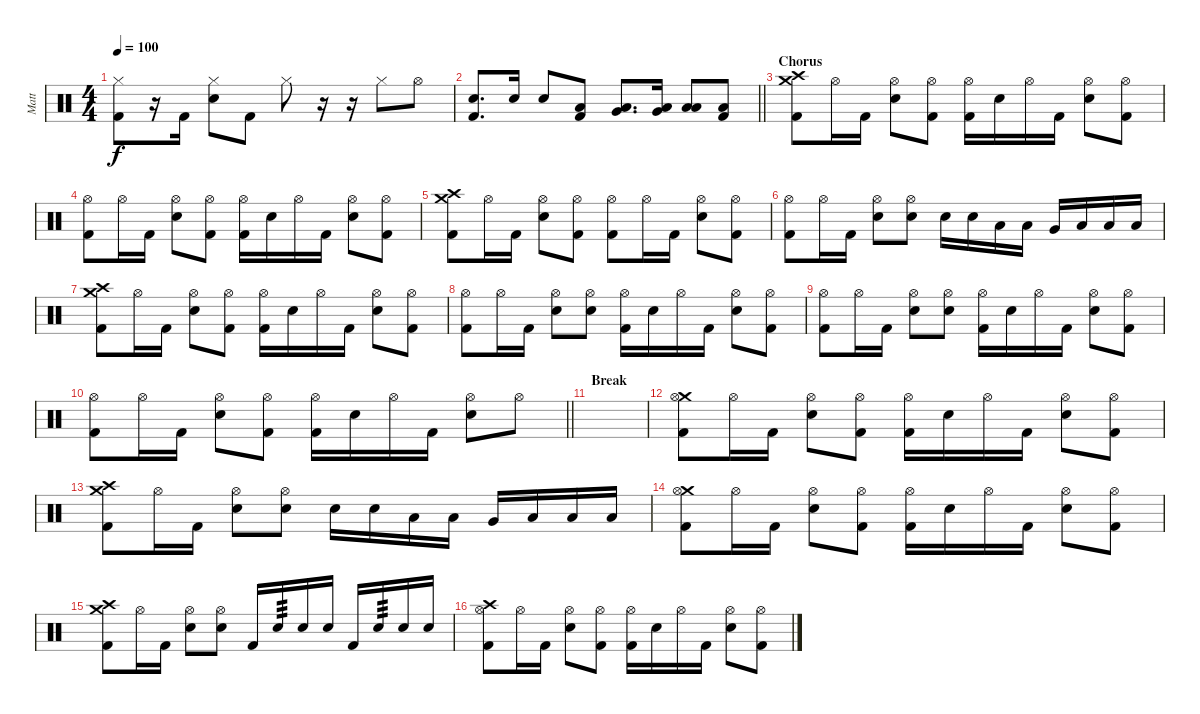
\track ("Matt" "Matt") {instrument percussion}
\staff {score}
\articulation defaults
\ts (4 4)
\tempo 100
\clef neutral
\ks c
("Hi-Hat (closed)" "Kick (hit) 2").8{dy f} r.16 "Kick (hit) 2".16 ("Hi-Hat (closed)" "Snare (hit) 2").8 "Kick (hit) 2".8 "Hi-Hat (closed)".8 r.16 r.16 "Hi-Hat (closed)".8 "Hi-Hat (open)".8 |
\barLineRight lightlight
("Snare (hit) 2" "Kick (hit) 2").8{d} "Snare (hit) 2".16 "Snare (hit) 2".8 ("Low Tom (hit)" "Kick (hit) 2").8 ("Low Tom (hit)" "Very Low Tom (hit)").8{d} ("Low Tom (hit)" "Very Low Tom (hit)").16 ("Low Tom (hit)" "Low Floor Tom (hit)").8 ("Low Floor Tom (hit)" "Kick (hit) 2").8 |
\section ("" "Chorus")
("Crash medium (hit)" "Crash high (hit)" "Kick (hit) 2").8 "Hi-Hat (open)".16 "Kick (hit) 2".16 ("Hi-Hat (open)" "Snare (hit) 2").8 ("Hi-Hat (open)" "Kick (hit) 2").8 ("Hi-Hat (open)" "Kick (hit) 2").16 "Snare (hit) 2".16 "Hi-Hat (open)".16 "Kick (hit) 2".16 ("Hi-Hat (open)" "Snare (hit) 2").8 ("Hi-Hat (open)" "Kick (hit) 2").8 |
("Hi-Hat (open)" "Kick (hit) 2").8 "Hi-Hat (open)".16 "Kick (hit) 2".16 ("Hi-Hat (open)" "Snare (hit) 2").8 ("Hi-Hat (open)" "Kick (hit) 2").8 ("Hi-Hat (open)" "Kick (hit) 2").16 "Snare (hit) 2".16 "Hi-Hat (open)".16 "Kick (hit) 2".16 ("Hi-Hat (open)" "Snare (hit) 2").8 ("Hi-Hat (open)" "Kick (hit) 2").8 |
("Crash medium (hit)" "Crash high (hit)" "Kick (hit) 2").8 "Hi-Hat (open)".16 "Kick (hit) 2".16 ("Hi-Hat (open)" "Snare (hit) 2").8 ("Hi-Hat (open)" "Kick (hit) 2").8 ("Hi-Hat (open)" "Kick (hit) 2").8 "Hi-Hat (open)".16 "Kick (hit) 2".16 ("Hi-Hat (open)" "Snare (hit) 2").8 ("Hi-Hat (open)" "Kick (hit) 2").8 |
("Hi-Hat (open)" "Kick (hit) 2").8 "Hi-Hat (open)".16 "Kick (hit) 2".16 ("Hi-Hat (open)" "Snare (hit) 2").8 ("Hi-Hat (open)" "Snare (hit) 2").8 "Snare (hit) 2".16 "Snare (hit) 2".16 "Low Tom (hit)".16 "Low Tom (hit)".16 "Very Low Tom (hit)".16 "Low Floor Tom (hit)".16 "Low Floor Tom (hit)".16 "Low Floor Tom (hit)".16 |
("Crash medium (hit)" "Crash high (hit)" "Kick (hit) 2").8 "Hi-Hat (open)".16 "Kick (hit) 2".16 ("Hi-Hat (open)" "Snare (hit) 2").8 ("Hi-Hat (open)" "Kick (hit) 2").8 ("Hi-Hat (open)" "Kick (hit) 2").16 "Snare (hit) 2".16 "Hi-Hat (open)".16 "Kick (hit) 2".16 ("Hi-Hat (open)" "Snare (hit) 2").8 ("Hi-Hat (open)" "Kick (hit) 2").8 |
("Hi-Hat (open)" "Kick (hit) 2").8 "Hi-Hat (open)".16 "Kick (hit) 2".16 ("Hi-Hat (open)" "Snare (hit) 2").8 ("Hi-Hat (open)" "Snare (hit) 2").8 ("Hi-Hat (open)" "Kick (hit) 2").16 "Snare (hit) 2".16 "Hi-Hat (open)".16 "Kick (hit) 2".16 ("Hi-Hat (open)" "Snare (hit) 2").8 ("Hi-Hat (open)" "Kick (hit) 2").8 |
("Hi-Hat (open)" "Kick (hit) 2").8 "Hi-Hat (open)".16 "Kick (hit) 2".16 ("Hi-Hat (open)" "Snare (hit) 2").8 ("Hi-Hat (open)" "Snare (hit) 2").8 ("Hi-Hat (open)" "Kick (hit) 2").16 "Snare (hit) 2".16 "Hi-Hat (open)".16 "Kick (hit) 2".16 ("Hi-Hat (open)" "Snare (hit) 2").8 ("Hi-Hat (open)" "Kick (hit) 2").8 |
\barLineRight lightlight
("Hi-Hat (open)" "Kick (hit) 2").8 "Hi-Hat (open)".16 "Kick (hit) 2".16 ("Hi-Hat (open)" "Snare (hit) 2").8 ("Hi-Hat (open)" "Kick (hit) 2").8 ("Hi-Hat (open)" "Kick (hit) 2").16 "Snare (hit) 2".16 "Hi-Hat (open)".16 "Kick (hit) 2".16 ("Hi-Hat (open)" "Snare (hit) 2").8 "Hi-Hat (open)".8 |
\section ("" "Break")
|
("Crash medium (hit)" "Hi-Hat (open)" "Kick (hit) 2").8 "Hi-Hat (open)".16 "Kick (hit) 2".16 ("Hi-Hat (open)" "Snare (hit) 2").8 ("Hi-Hat (open)" "Kick (hit) 2").8 ("Hi-Hat (open)" "Kick (hit) 2").16 "Snare (hit) 2".16 "Hi-Hat (open)".16 "Kick (hit) 2".16 ("Hi-Hat (open)" "Snare (hit) 2").8 ("Hi-Hat (open)" "Kick (hit) 2").8 |
("Crash medium (hit)" "Crash high (hit)" "Kick (hit) 2").8 "Hi-Hat (open)".16 "Kick (hit) 2".16 ("Hi-Hat (open)" "Snare (hit) 2").8 ("Hi-Hat (open)" "Snare (hit) 2").8 "Snare (hit) 2".16 "Snare (hit) 2".16 "Low Tom (hit)".16 "Low Tom (hit)".16 "Very Low Tom (hit)".16 "Low Floor Tom (hit)".16 "Low Floor Tom (hit)".16 "Low Floor Tom (hit)".16 |
("Crash medium (hit)" "Hi-Hat (open)" "Kick (hit) 2").8 "Hi-Hat (open)".16 "Kick (hit) 2".16 ("Hi-Hat (open)" "Snare (hit) 2").8 ("Hi-Hat (open)" "Kick (hit) 2").8 ("Hi-Hat (open)" "Kick (hit) 2").16 "Snare (hit) 2".16 "Hi-Hat (open)".16 "Kick (hit) 2".16 ("Hi-Hat (open)" "Snare (hit) 2").8 ("Hi-Hat (open)" "Kick (hit) 2").8 |
("Crash medium (hit)" "Crash high (hit)" "Kick (hit) 2").8 "Hi-Hat (open)".16 "Kick (hit) 2".16 ("Hi-Hat (open)" "Snare (hit) 2").8 ("Hi-Hat (open)" "Snare (hit) 2").8 "Kick (hit) 2".16 "Snare (hit) 2".16{tp 3} "Snare (hit) 2".16 "Snare (hit) 2".16 "Kick (hit) 2".16 "Snare (hit) 2".16{tp 3} "Snare (hit) 2".16 "Snare (hit) 2".16 |
("Crash high (hit)" "Hi-Hat (open)" "Kick (hit) 2").8 "Hi-Hat (open)".16 "Kick (hit) 2".16 ("Hi-Hat (open)" "Snare (hit) 2").8 ("Hi-Hat (open)" "Kick (hit) 2").8 ("Hi-Hat (open)" "Kick (hit) 2").16 "Snare (hit) 2".16 "Hi-Hat (open)".16 "Kick (hit) 2".16 ("Hi-Hat (open)" "Snare (hit) 2").8 ("Hi-Hat (open)" "Kick (hit) 2").8
